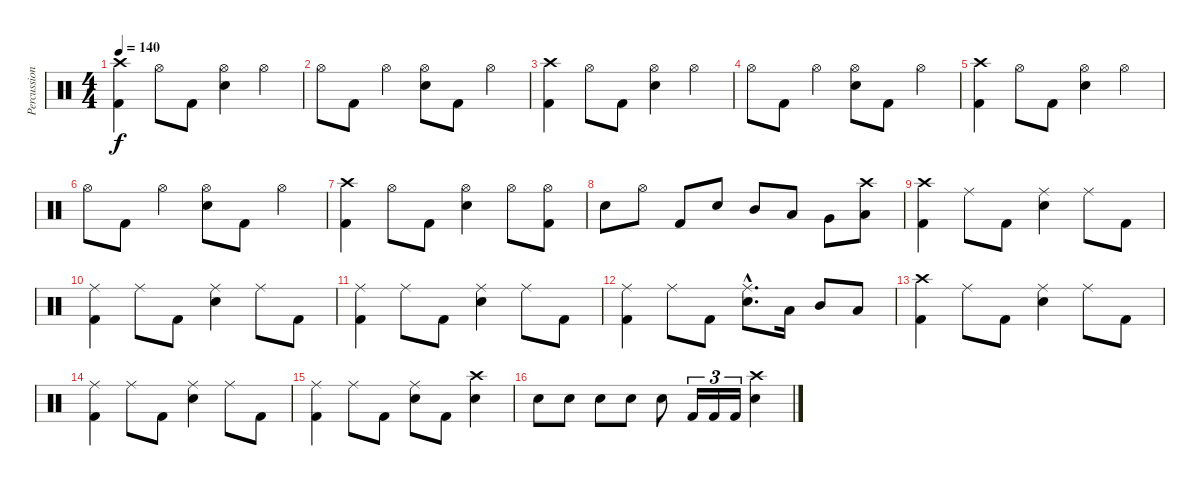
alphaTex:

\track ("Percussion" "Percussion") {instrument percussion}
\staff {score}
\articulation defaults
\ts (4 4)
\tempo 140
\clef neutral
\ks c
("Crash high (hit)" "Kick (hit) 2").4{dy f} "Hi-Hat (open)".8 "Kick (hit) 2".8 ("Hi-Hat (open)" "Snare (hit) 2").4 "Hi-Hat (open)".4 |
"Hi-Hat (open)".8 "Kick (hit) 2".8 "Hi-Hat (open)".4 ("Hi-Hat (open)" "Snare (hit) 2").8 "Kick (hit) 2".8 "Hi-Hat (open)".4 |
("Crash high (hit)" "Kick (hit) 2").4 "Hi-Hat (open)".8 "Kick (hit) 2".8 ("Hi-Hat (open)" "Snare (hit) 2").4 "Hi-Hat (open)".4 |
"Hi-Hat (open)".8 "Kick (hit) 2".8 "Hi-Hat (open)".4 ("Hi-Hat (open)" "Snare (hit) 2").8 "Kick (hit) 2".8 "Hi-Hat (open)".4 |
("Crash high (hit)" "Kick (hit) 2").4 "Hi-Hat (open)".8 "Kick (hit) 2".8 ("Hi-Hat (open)" "Snare (hit) 2").4 "Hi-Hat (open)".4 |
"Hi-Hat (open)".8 "Kick (hit) 2".8 "Hi-Hat (open)".4 ("Hi-Hat (open)" "Snare (hit) 2").8 "Kick (hit) 2".8 "Hi-Hat (open)".4 |
("Crash high (hit)" "Kick (hit) 2").4 "Hi-Hat (open)".8 "Kick (hit) 2".8 ("Hi-Hat (open)" "Snare (hit) 2").4 "Hi-Hat (open)".8 ("Hi-Hat (open)" "Kick (hit) 2").8 |
"Snare (hit) 2".8 "Hi-Hat (open)".8 "Kick (hit) 2".8 "Snare (hit) 2".8 "Mid Tom (hit)".8 "Low Tom (hit)".8 "Very Low Tom (hit)".8 ("Crash high (hit)" "Low Floor Tom (hit)").8 |
("Crash high (hit)" "Kick (hit) 2").4 "Ride (middle)".8 "Kick (hit) 2".8 ("Ride (middle)" "Snare (hit) 2").4 "Ride (middle)".8 "Kick (hit) 2".8 |
("Ride (middle)" "Kick (hit) 2").4 "Ride (middle)".8 "Kick (hit) 2".8 ("Ride (middle)" "Snare (hit) 2").4 "Ride (middle)".8 "Kick (hit) 2".8 |
("Ride (middle)" "Kick (hit) 2").4 "Ride (middle)".8 "Kick (hit) 2".8 ("Ride (middle)" "Snare (hit) 2").4 "Ride (middle)".8 "Kick (hit) 2".8 |
("Ride (middle)" "Kick (hit) 2").4 "Ride (middle)".8 "Kick (hit) 2".8 ("Ride (middle)"{hac} "Snare (hit) 2"{hac}).8{d} "Low Tom (hit)".16 "Mid Tom (hit)".8 "Low Tom (hit)".8 |
("Crash high (hit)" "Kick (hit) 2").4 "Ride (middle)".8 "Kick (hit) 2".8 ("Ride (middle)" "Snare (hit) 2").4 "Ride (middle)".8 "Kick (hit) 2".8 |
("Ride (middle)" "Kick (hit) 2").4 "Ride (middle)".8 "Kick (hit) 2".8 ("Ride (middle)" "Snare (hit) 2").4 "Ride (middle)".8 "Kick (hit) 2".8 |
("Ride (middle)" "Kick (hit) 2").4 "Ride (middle)".8 "Kick (hit) 2".8 ("Ride (middle)" "Snare (hit) 2").8 "Kick (hit) 2".8 ("Crash high (hit)" "Snare (hit) 2").4 |
"Snare (hit) 2".8 "Snare (hit) 2".8 "Snare (hit) 2".8 "Snare (hit) 2".8 "Snare (hit) 2".8 "Kick (hit) 2".16{tu (3 2)} "Kick (hit) 2".16{tu (3 2)} "Kick (hit) 2".16{tu (3 2)} ("Crash high (hit)" "Snare (hit) 2").4
